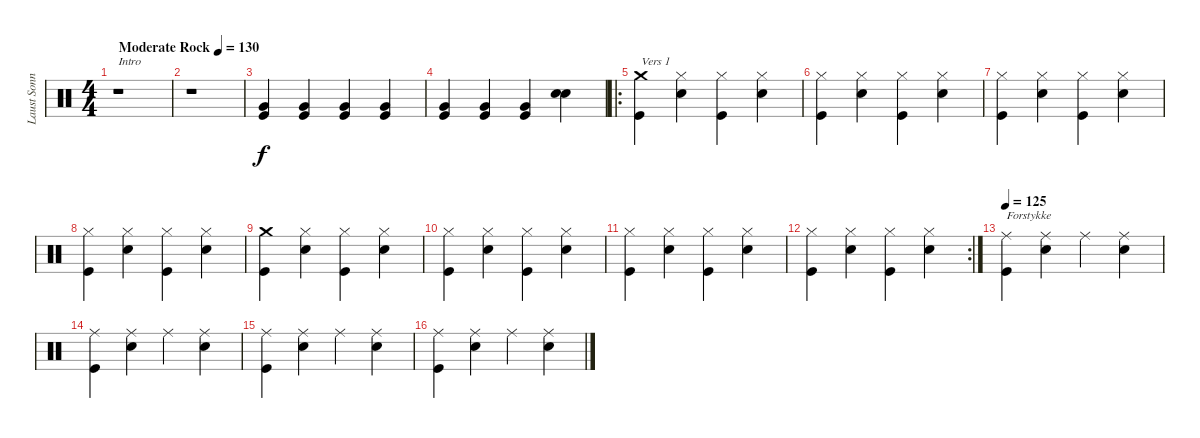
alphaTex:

\track ("Laust Sonne (Trommer)" "Laust Sonn") {instrument percussion}
\staff {score}
\articulation defaults
\ts (4 4)
\tempo (130 "Moderate Rock")
\clef neutral
\ks c
r.1{txt "Intro" dy f} |
r.1 |
("Very Low Tom (hit)" "Kick (hit)").4 ("Very Low Tom (hit)" "Kick (hit)").4 ("Very Low Tom (hit)" "Kick (hit)").4 ("Very Low Tom (hit)" "Kick (hit)").4 |
("Very Low Tom (hit)" "Kick (hit)").4 ("Very Low Tom (hit)" "Kick (hit)").4 ("Very Low Tom (hit)" "Kick (hit)").4 ("Snare (hit) 2" "Snare (hit) 2").4 |
\ro
("Crash medium (hit)" "Kick (hit)").4{txt "Vers 1"} ("Hi-Hat (closed)" "Snare (hit) 2").4 ("Hi-Hat (closed)" "Kick (hit)").4 ("Hi-Hat (closed)" "Snare (hit) 2").4 |
("Hi-Hat (closed)" "Kick (hit)").4 ("Hi-Hat (closed)" "Snare (hit) 2").4 ("Hi-Hat (closed)" "Kick (hit)").4 ("Hi-Hat (closed)" "Snare (hit) 2").4 |
("Hi-Hat (closed)" "Kick (hit)").4 ("Hi-Hat (closed)" "Snare (hit) 2").4 ("Hi-Hat (closed)" "Kick (hit)").4 ("Hi-Hat (closed)" "Snare (hit) 2").4 |
("Hi-Hat (closed)" "Kick (hit)").4 ("Hi-Hat (closed)" "Snare (hit) 2").4 ("Hi-Hat (closed)" "Kick (hit)").4 ("Hi-Hat (closed)" "Snare (hit) 2").4 |
("Crash medium (hit)" "Kick (hit)").4 ("Hi-Hat (closed)" "Snare (hit) 2").4 ("Hi-Hat (closed)" "Kick (hit)").4 ("Hi-Hat (closed)" "Snare (hit) 2").4 |
("Hi-Hat (closed)" "Kick (hit)").4 ("Hi-Hat (closed)" "Snare (hit) 2").4 ("Hi-Hat (closed)" "Kick (hit)").4 ("Hi-Hat (closed)" "Snare (hit) 2").4 |
("Hi-Hat (closed)" "Kick (hit)").4 ("Hi-Hat (closed)" "Snare (hit) 2").4 ("Hi-Hat (closed)" "Kick (hit)").4 ("Hi-Hat (closed)" "Snare (hit) 2").4 |
\rc 2
("Hi-Hat (closed)" "Kick (hit)").4 ("Hi-Hat (closed)" "Snare (hit) 2").4 ("Hi-Hat (closed)" "Kick (hit)").4 ("Hi-Hat (closed)" "Snare (hit) 2").4 |
\tempo 125
("Ride (middle)" "Kick (hit)").4{txt "Forstykke"} ("Ride (middle)" "Snare (hit) 2").4 "Ride (middle)".4 ("Ride (middle)" "Snare (hit) 2").4 |
("Ride (middle)" "Kick (hit)").4 ("Ride (middle)" "Snare (hit) 2").4 "Ride (middle)".4 ("Ride (middle)" "Snare (hit) 2").4 |
("Ride (middle)" "Kick (hit)").4 ("Ride (middle)" "Snare (hit) 2").4 "Ride (middle)".4 ("Ride (middle)" "Snare (hit) 2").4 |
("Ride (middle)" "Kick (hit)").4 ("Ride (middle)" "Snare (hit) 2").4 "Ride (middle)".4 ("Ride (middle)" "Snare (hit) 2").4
